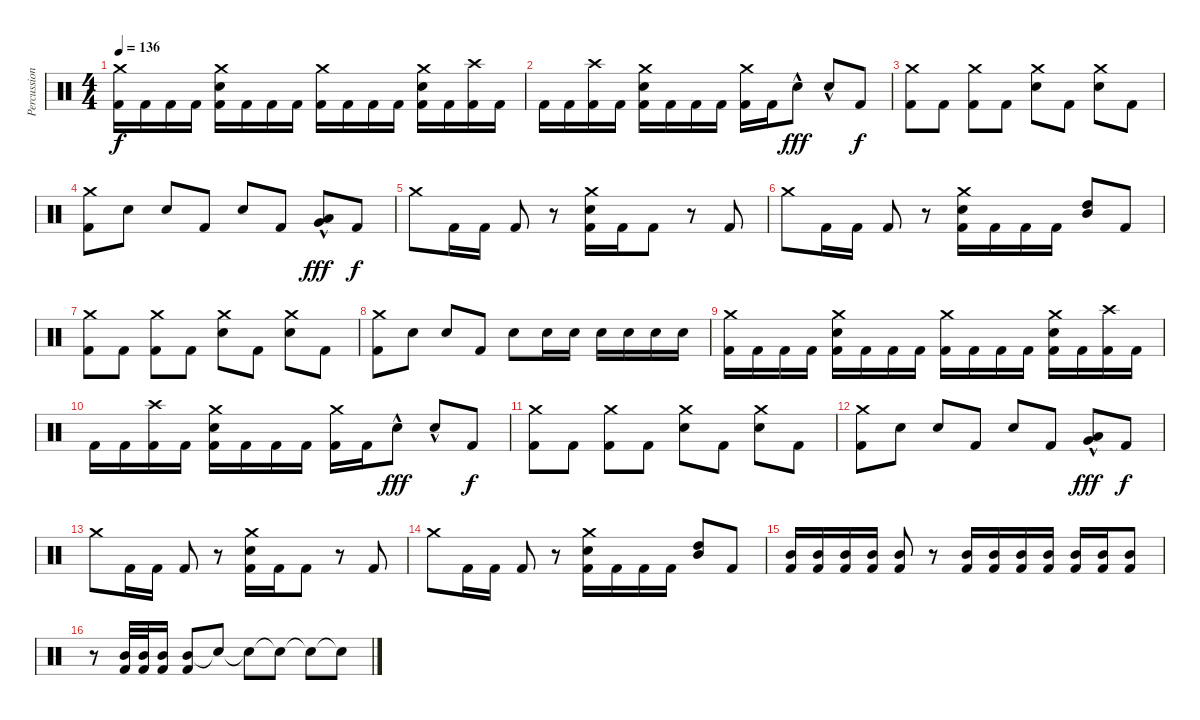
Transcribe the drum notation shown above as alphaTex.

\track ("Percussion" "Percussion") {instrument percussion}
\staff {score}
\articulation defaults
\ts (4 4)
\tempo 136
\clef neutral
\ks c
("Crash medium (hit)" "Kick (hit) 2").16{dy f} "Kick (hit) 2".16 "Kick (hit) 2".16 "Kick (hit) 2".16 ("Crash medium (hit)" "Electric Snare (hit)" "Kick (hit) 2").16 "Kick (hit) 2".16 "Kick (hit) 2".16 "Kick (hit) 2".16 ("Crash medium (hit)" "Kick (hit) 2").16 "Kick (hit) 2".16 "Kick (hit) 2".16 "Kick (hit) 2".16 ("Crash medium (hit)" "Electric Snare (hit)" "Kick (hit) 2").16 "Kick (hit) 2".16 ("Crash high (hit)" "Kick (hit) 2").16 "Kick (hit) 2".16 |
"Kick (hit) 2".16 "Kick (hit) 2".16 ("Crash high (hit)" "Kick (hit) 2").16 "Kick (hit) 2".16 ("Crash medium (hit)" "Electric Snare (hit)" "Kick (hit) 2").16 "Kick (hit) 2".16 "Kick (hit) 2".16 "Kick (hit) 2".16 ("Crash medium (hit)" "Kick (hit) 2").16 "Kick (hit) 2".16 "Electric Snare (hit)"{hac}.8{dy fff} "Electric Snare (hit)"{hac}.8 "Kick (hit) 2".8{dy f} |
("Crash medium (hit)" "Kick (hit) 2").8 "Kick (hit) 2".8 ("Crash medium (hit)" "Kick (hit) 2").8 "Kick (hit) 2".8 ("Crash medium (hit)" "Electric Snare (hit)").8 "Kick (hit) 2".8 ("Crash medium (hit)" "Electric Snare (hit)").8 "Kick (hit) 2".8 |
("Crash medium (hit)" "Kick (hit) 2").8 "Electric Snare (hit)".8 "Electric Snare (hit)".8 "Kick (hit) 2".8 "Electric Snare (hit)".8 "Kick (hit) 2".8 ("Very Low Tom (hit)" "Low Floor Tom (hit)"{hac}).8{dy fff} "Kick (hit) 2".8{dy f} |
"Crash medium (hit)".8 "Kick (hit) 2".16 "Kick (hit) 2".16 "Kick (hit) 2".8 r.8 ("Crash medium (hit)" "Electric Snare (hit)" "Kick (hit) 2").16 "Kick (hit) 2".16 "Kick (hit) 2".8 r.8 "Kick (hit) 2".8 |
"Crash medium (hit)".8 "Kick (hit) 2".16 "Kick (hit) 2".16 "Kick (hit) 2".8 r.8 ("Crash medium (hit)" "Electric Snare (hit)" "Kick (hit) 2").16 "Kick (hit) 2".16 "Kick (hit) 2".16 "Kick (hit) 2".16 ("Mid Tom (hit)" "High Tom (hit)").8 "Kick (hit) 2".8 |
("Crash medium (hit)" "Kick (hit) 2").8 "Kick (hit) 2".8 ("Crash medium (hit)" "Kick (hit) 2").8 "Kick (hit) 2".8 ("Crash medium (hit)" "Electric Snare (hit)").8 "Kick (hit) 2".8 ("Crash medium (hit)" "Electric Snare (hit)").8 "Kick (hit) 2".8 |
("Crash medium (hit)" "Kick (hit) 2").8 "Electric Snare (hit)".8 "Electric Snare (hit)".8 "Kick (hit) 2".8 "Electric Snare (hit)".8 "Electric Snare (hit)".16 "Electric Snare (hit)".16 "Electric Snare (hit)".16 "Electric Snare (hit)".16 "Electric Snare (hit)".16 "Electric Snare (hit)".16 |
("Crash medium (hit)" "Kick (hit) 2").16 "Kick (hit) 2".16 "Kick (hit) 2".16 "Kick (hit) 2".16 ("Crash medium (hit)" "Electric Snare (hit)" "Kick (hit) 2").16 "Kick (hit) 2".16 "Kick (hit) 2".16 "Kick (hit) 2".16 ("Crash medium (hit)" "Kick (hit) 2").16 "Kick (hit) 2".16 "Kick (hit) 2".16 "Kick (hit) 2".16 ("Crash medium (hit)" "Electric Snare (hit)" "Kick (hit) 2").16 "Kick (hit) 2".16 ("Crash high (hit)" "Kick (hit) 2").16 "Kick (hit) 2".16 |
"Kick (hit) 2".16 "Kick (hit) 2".16 ("Crash high (hit)" "Kick (hit) 2").16 "Kick (hit) 2".16 ("Crash medium (hit)" "Electric Snare (hit)" "Kick (hit) 2").16 "Kick (hit) 2".16 "Kick (hit) 2".16 "Kick (hit) 2".16 ("Crash medium (hit)" "Kick (hit) 2").16 "Kick (hit) 2".16 "Electric Snare (hit)"{hac}.8{dy fff} "Electric Snare (hit)"{hac}.8 "Kick (hit) 2".8{dy f} |
("Crash medium (hit)" "Kick (hit) 2").8 "Kick (hit) 2".8 ("Crash medium (hit)" "Kick (hit) 2").8 "Kick (hit) 2".8 ("Crash medium (hit)" "Electric Snare (hit)").8 "Kick (hit) 2".8 ("Crash medium (hit)" "Electric Snare (hit)").8 "Kick (hit) 2".8 |
("Crash medium (hit)" "Kick (hit) 2").8 "Electric Snare (hit)".8 "Electric Snare (hit)".8 "Kick (hit) 2".8 "Electric Snare (hit)".8 "Kick (hit) 2".8 ("Very Low Tom (hit)" "Low Floor Tom (hit)"{hac}).8{dy fff} "Kick (hit) 2".8{dy f} |
"Crash medium (hit)".8 "Kick (hit) 2".16 "Kick (hit) 2".16 "Kick (hit) 2".8 r.8 ("Crash medium (hit)" "Electric Snare (hit)" "Kick (hit) 2").16 "Kick (hit) 2".16 "Kick (hit) 2".8 r.8 "Kick (hit) 2".8 |
"Crash medium (hit)".8 "Kick (hit) 2".16 "Kick (hit) 2".16 "Kick (hit) 2".8 r.8 ("Crash medium (hit)" "Electric Snare (hit)" "Kick (hit) 2").16 "Kick (hit) 2".16 "Kick (hit) 2".16 "Kick (hit) 2".16 ("High Tom (hit)" "Mid Tom (hit)").8 "Kick (hit) 2".8 |
("Mid Tom (hit)" "Kick (hit) 2").16 ("Mid Tom (hit)" "Kick (hit) 2").16 ("Mid Tom (hit)" "Kick (hit) 2").16 ("Mid Tom (hit)" "Kick (hit) 2").16 ("Mid Tom (hit)" "Kick (hit) 2").8 r.8 ("Mid Tom (hit)" "Kick (hit) 2").16 ("Mid Tom (hit)" "Kick (hit) 2").16 ("Mid Tom (hit)" "Kick (hit) 2").16 ("Mid Tom (hit)" "Kick (hit) 2").16 ("Mid Tom (hit)" "Kick (hit) 2").16 ("Mid Tom (hit)" "Kick (hit) 2").16 ("Mid Tom (hit)" "Kick (hit) 2").8 |
r.8 ("Mid Tom (hit)" "Kick (hit) 2").32 ("Mid Tom (hit)" "Kick (hit) 2").32 ("Mid Tom (hit)" "Kick (hit) 2").16 ("Mid Tom (hit)" "Kick (hit) 2").8 "Snare (hit)"{t}.8 "Snare (hit)"{t}.8 "Snare (hit)"{t}.8 "Snare (hit)"{t}.8 "Snare (hit)"{t}.8
